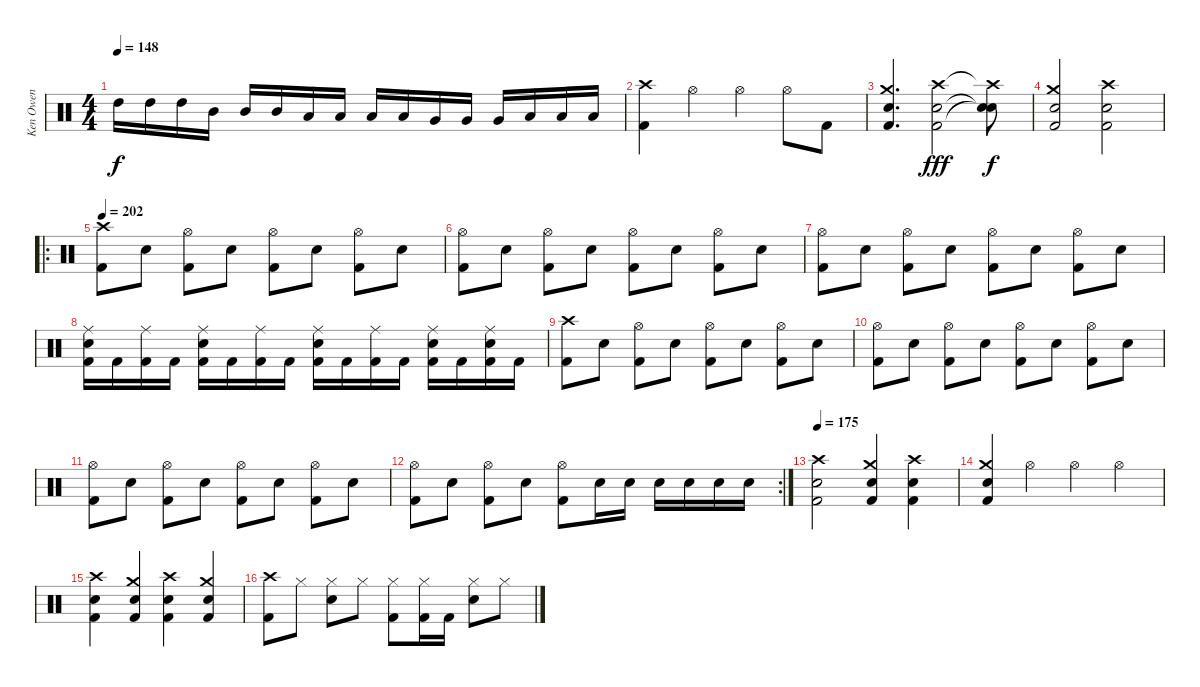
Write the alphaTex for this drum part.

\track ("Ken Owen" "Ken Owen") {instrument percussion}
\staff {score}
\articulation defaults
\ts (4 4)
\tempo 148
\clef neutral
\ks c "High Tom (hit)".16{dy f} "High Tom (hit)".16 "High Tom (hit)".16 "Mid Tom (hit)".16 "Mid Tom (hit)".16 "Mid Tom (hit)".16 "Low Tom (hit)".16 "Low Tom (hit)".16 "Low Tom (hit)".16 "Low Tom (hit)".16 "Very Low Tom (hit)".16 "Very Low Tom (hit)".16 "Very Low Tom (hit)".16 "Low Floor Tom (hit)".16 "Low Floor Tom (hit)".16 "Low Floor Tom (hit)".16
|
("Crash high (hit)" "Kick (hit) 2").4 "Hi-Hat (open)".4 "Hi-Hat (open)".4 "Hi-Hat (open)".8 "Kick (hit) 2".8 |
("Crash medium (hit)" "Snare (hit) 2" "Kick (hit) 2").4{d} ("Crash high (hit)" "Snare (hit) 2" "Kick (hit) 2").2{dy fff} ("Crash high (hit)"{t} "Snare (hit)"{t} "Snare (hit)"{t}).8{dy f} |
("Crash medium (hit)" "Snare (hit) 2" "Kick (hit) 2").2 ("Crash high (hit)" "Snare (hit) 2" "Kick (hit) 2").2 |
\ro
\tempo 202
("Crash high (hit)" "Kick (hit) 2").8 "Snare (hit) 2".8 ("Hi-Hat (open)" "Kick (hit) 2").8 "Snare (hit) 2".8 ("Hi-Hat (open)" "Kick (hit) 2").8 "Snare (hit) 2".8 ("Hi-Hat (open)" "Kick (hit) 2").8 "Snare (hit) 2".8 |
("Hi-Hat (open)" "Kick (hit) 2").8 "Snare (hit) 2".8 ("Hi-Hat (open)" "Kick (hit) 2").8 "Snare (hit) 2".8 ("Hi-Hat (open)" "Kick (hit) 2").8 "Snare (hit) 2".8 ("Hi-Hat (open)" "Kick (hit) 2").8 "Snare (hit) 2".8 |
("Hi-Hat (open)" "Kick (hit) 2").8 "Snare (hit) 2".8 ("Hi-Hat (open)" "Kick (hit) 2").8 "Snare (hit) 2".8 ("Hi-Hat (open)" "Kick (hit) 2").8 "Snare (hit) 2".8 ("Hi-Hat (open)" "Kick (hit) 2").8 "Snare (hit) 2".8 |
("Ride (middle)" "Snare (hit) 2" "Kick (hit) 2").16 "Kick (hit) 2".16 ("Ride (middle)" "Kick (hit) 2").16 "Kick (hit) 2".16 ("Ride (middle)" "Snare (hit) 2" "Kick (hit) 2").16 "Kick (hit) 2".16 ("Ride (middle)" "Kick (hit) 2").16 "Kick (hit) 2".16 ("Ride (middle)" "Snare (hit) 2" "Kick (hit) 2").16 "Kick (hit) 2".16 ("Ride (middle)" "Kick (hit) 2").16 "Kick (hit) 2".16 ("Ride (middle)" "Snare (hit) 2" "Kick (hit) 2").16 "Kick (hit) 2".16 ("Ride (middle)" "Snare (hit) 2" "Kick (hit) 2").16 "Kick (hit) 2".16 |
("Crash high (hit)" "Kick (hit) 2").8 "Snare (hit) 2".8 ("Hi-Hat (open)" "Kick (hit) 2").8 "Snare (hit) 2".8 ("Hi-Hat (open)" "Kick (hit) 2").8 "Snare (hit) 2".8 ("Hi-Hat (open)" "Kick (hit) 2").8 "Snare (hit) 2".8 |
("Hi-Hat (open)" "Kick (hit) 2").8 "Snare (hit) 2".8 ("Hi-Hat (open)" "Kick (hit) 2").8 "Snare (hit) 2".8 ("Hi-Hat (open)" "Kick (hit) 2").8 "Snare (hit) 2".8 ("Hi-Hat (open)" "Kick (hit) 2").8 "Snare (hit) 2".8 |
("Hi-Hat (open)" "Kick (hit) 2").8 "Snare (hit) 2".8 ("Hi-Hat (open)" "Kick (hit) 2").8 "Snare (hit) 2".8 ("Hi-Hat (open)" "Kick (hit) 2").8 "Snare (hit) 2".8 ("Hi-Hat (open)" "Kick (hit) 2").8 "Snare (hit) 2".8 |
\rc 2
("Hi-Hat (open)" "Kick (hit) 2").8 "Snare (hit) 2".8 ("Hi-Hat (open)" "Kick (hit) 2").8 "Snare (hit) 2".8 ("Hi-Hat (open)" "Kick (hit) 2").8 "Snare (hit) 2".16 "Snare (hit) 2".16 "Snare (hit) 2".16 "Snare (hit) 2".16 "Snare (hit) 2".16 "Snare (hit) 2".16 |
\tempo 175
("Crash high (hit)" "Snare (hit) 2" "Kick (hit) 2").2 ("Crash medium (hit)" "Snare (hit) 2" "Kick (hit) 2").4 ("Crash high (hit)" "Snare (hit) 2" "Kick (hit) 2").4 |
("Crash medium (hit)" "Snare (hit) 2" "Kick (hit) 2").4 "Hi-Hat (open)".4 "Hi-Hat (open)".4 "Hi-Hat (open)".4 |
("Crash high (hit)" "Snare (hit) 2" "Kick (hit) 2").4 ("Crash medium (hit)" "Snare (hit) 2" "Kick (hit) 2").4 ("Crash high (hit)" "Snare (hit) 2" "Kick (hit) 2").4 ("Crash medium (hit)" "Snare (hit) 2" "Kick (hit) 2").4 |
("Crash high (hit)" "Kick (hit) 2").8 "Hi-Hat (closed)".8 ("Hi-Hat (closed)" "Snare (hit) 2").8 "Hi-Hat (closed)".8 ("Hi-Hat (closed)" "Kick (hit) 2").8 ("Hi-Hat (closed)" "Kick (hit) 2").16 "Kick (hit) 2".16 ("Hi-Hat (closed)" "Snare (hit) 2").8 "Hi-Hat (closed)".8
